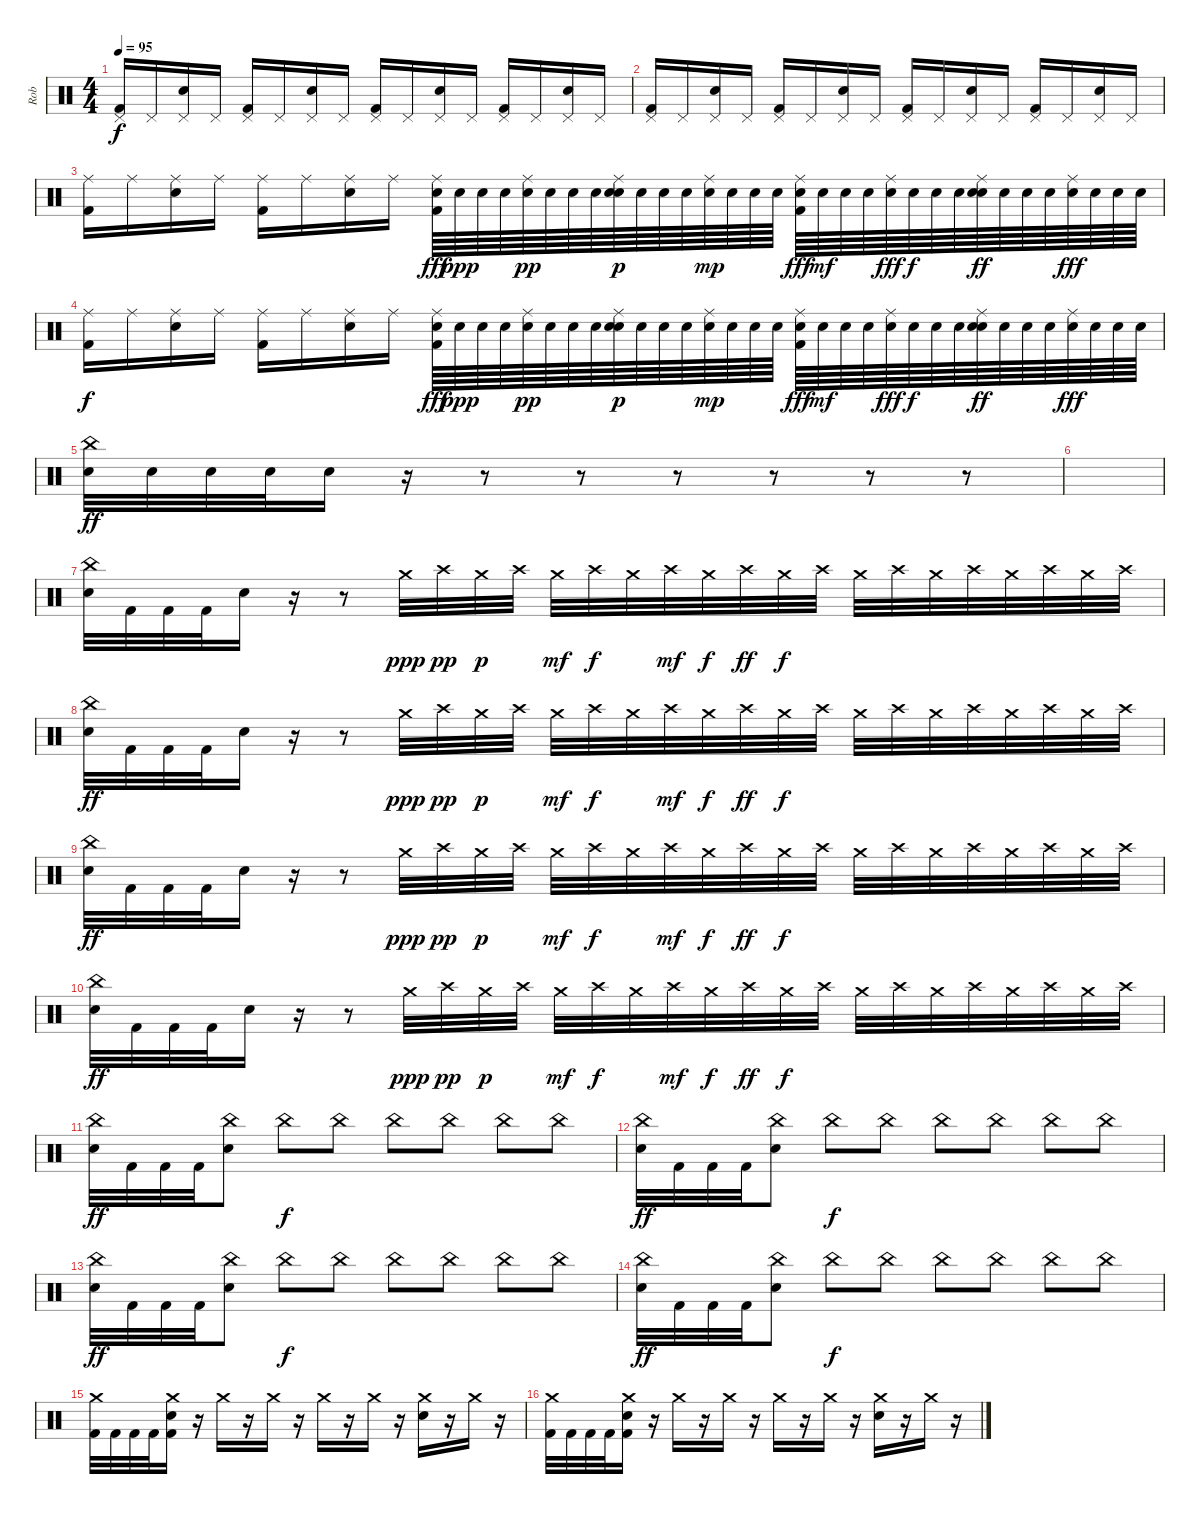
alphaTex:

\track ("Rob" "Rob") {instrument percussion}
\staff {score}
\articulation defaults
\ts (4 4)
\tempo 95
\clef neutral
\ks c
("Pedal Hi-Hat (hit)" "Kick (hit) 2").16{dy f} "Pedal Hi-Hat (hit)".16 ("Pedal Hi-Hat (hit)" "Electric Snare (hit)").16 "Pedal Hi-Hat (hit)".16 ("Pedal Hi-Hat (hit)" "Kick (hit) 2").16 "Pedal Hi-Hat (hit)".16 ("Pedal Hi-Hat (hit)" "Electric Snare (hit)").16 "Pedal Hi-Hat (hit)".16 ("Pedal Hi-Hat (hit)" "Kick (hit) 2").16 "Pedal Hi-Hat (hit)".16 ("Pedal Hi-Hat (hit)" "Electric Snare (hit)").16 "Pedal Hi-Hat (hit)".16 ("Pedal Hi-Hat (hit)" "Kick (hit) 2").16 "Pedal Hi-Hat (hit)".16 ("Pedal Hi-Hat (hit)" "Electric Snare (hit)").16 "Pedal Hi-Hat (hit)".16 |
("Pedal Hi-Hat (hit)" "Kick (hit) 2").16 "Pedal Hi-Hat (hit)".16 ("Pedal Hi-Hat (hit)" "Electric Snare (hit)").16 "Pedal Hi-Hat (hit)".16 ("Pedal Hi-Hat (hit)" "Kick (hit) 2").16 "Pedal Hi-Hat (hit)".16 ("Pedal Hi-Hat (hit)" "Electric Snare (hit)").16 "Pedal Hi-Hat (hit)".16 ("Pedal Hi-Hat (hit)" "Kick (hit) 2").16 "Pedal Hi-Hat (hit)".16 ("Pedal Hi-Hat (hit)" "Electric Snare (hit)").16 "Pedal Hi-Hat (hit)".16 ("Pedal Hi-Hat (hit)" "Kick (hit) 2").16 "Pedal Hi-Hat (hit)".16 ("Pedal Hi-Hat (hit)" "Electric Snare (hit)").16 "Pedal Hi-Hat (hit)".16 |
("Ride (middle)" "Kick (hit) 2").16 "Ride (middle)".16 ("Ride (middle)" "Electric Snare (hit)").16 "Ride (middle)".16 ("Ride (middle)" "Kick (hit) 2").16 "Ride (middle)".16 ("Ride (middle)" "Electric Snare (hit)").16 "Ride (middle)".16 ("Ride (middle)" "Electric Snare (hit)" "Kick (hit) 2").64{dy fff} "Electric Snare (hit)".64{dy ppp} "Electric Snare (hit)".64 "Electric Snare (hit)".64 ("Ride (middle)" "Electric Snare (hit)").64{dy pp} "Electric Snare (hit)".64 "Electric Snare (hit)".64 "Electric Snare (hit)".64 ("Ride (middle)" "Electric Snare (hit)" "Electric Snare (hit)").64{dy p} "Electric Snare (hit)".64 "Electric Snare (hit)".64 "Electric Snare (hit)".64 ("Ride (middle)" "Electric Snare (hit)").64{dy mp} "Electric Snare (hit)".64 "Electric Snare (hit)".64 "Electric Snare (hit)".64 ("Ride (middle)" "Electric Snare (hit)" "Kick (hit) 2").64{dy fff} "Electric Snare (hit)".64{dy mf} "Electric Snare (hit)".64 "Electric Snare (hit)".64 ("Ride (middle)" "Electric Snare (hit)").64{dy fff} "Electric Snare (hit)".64{dy f} "Electric Snare (hit)".64 "Electric Snare (hit)".64 ("Ride (middle)" "Electric Snare (hit)" "Electric Snare (hit)").64{dy ff} "Electric Snare (hit)".64 "Electric Snare (hit)".64 "Electric Snare (hit)".64 ("Ride (middle)" "Electric Snare (hit)").64{dy fff} "Electric Snare (hit)".64 "Electric Snare (hit)".64 "Electric Snare (hit)".64 |
("Ride (middle)" "Kick (hit) 2").16{dy f} "Ride (middle)".16 ("Ride (middle)" "Electric Snare (hit)").16 "Ride (middle)".16 ("Ride (middle)" "Kick (hit) 2").16 "Ride (middle)".16 ("Ride (middle)" "Electric Snare (hit)").16 "Ride (middle)".16 ("Ride (middle)" "Electric Snare (hit)" "Kick (hit) 2").64{dy fff} "Electric Snare (hit)".64{dy ppp} "Electric Snare (hit)".64 "Electric Snare (hit)".64 ("Ride (middle)" "Electric Snare (hit)").64{dy pp} "Electric Snare (hit)".64 "Electric Snare (hit)".64 "Electric Snare (hit)".64 ("Ride (middle)" "Electric Snare (hit)" "Electric Snare (hit)").64{dy p} "Electric Snare (hit)".64 "Electric Snare (hit)".64 "Electric Snare (hit)".64 ("Ride (middle)" "Electric Snare (hit)").64{dy mp} "Electric Snare (hit)".64 "Electric Snare (hit)".64 "Electric Snare (hit)".64 ("Ride (middle)" "Electric Snare (hit)" "Kick (hit) 2").64{dy fff} "Electric Snare (hit)".64{dy mf} "Electric Snare (hit)".64 "Electric Snare (hit)".64 ("Ride (middle)" "Electric Snare (hit)").64{dy fff} "Electric Snare (hit)".64{dy f} "Electric Snare (hit)".64 "Electric Snare (hit)".64 ("Ride (middle)" "Electric Snare (hit)" "Electric Snare (hit)").64{dy ff} "Electric Snare (hit)".64 "Electric Snare (hit)".64 "Electric Snare (hit)".64 ("Ride (middle)" "Electric Snare (hit)").64{dy fff} "Electric Snare (hit)".64 "Electric Snare (hit)".64 "Electric Snare (hit)".64 |
("China (hit)" "Electric Snare (hit)").32{dy ff} "Electric Snare (hit)".32 "Electric Snare (hit)".32 "Electric Snare (hit)".32 "Electric Snare (hit)".16 r.16 r.8 r.8 r.8 r.8 r.8 r.8 |
|
("China (hit)" "Electric Snare (hit)").32 "Kick (hit) 2".32 "Kick (hit) 2".32 "Kick (hit) 2".32 "Electric Snare (hit)".16 r.16 r.8 "Crash medium (hit)".32{dy ppp} "Crash high (hit)".32{dy pp} "Crash medium (hit)".32{dy p} "Crash high (hit)".32 "Crash medium (hit)".32{dy mf} "Crash high (hit)".32{dy f} "Crash medium (hit)".32 "Crash high (hit)".32{dy mf} "Crash medium (hit)".32{dy f} "Crash high (hit)".32{dy ff} "Crash medium (hit)".32{dy f} "Crash high (hit)".32 "Crash medium (hit)".32 "Crash high (hit)".32 "Crash medium (hit)".32 "Crash high (hit)".32 "Crash medium (hit)".32 "Crash high (hit)".32 "Crash medium (hit)".32 "Crash high (hit)".32 |
("China (hit)" "Electric Snare (hit)").32{dy ff} "Kick (hit) 2".32 "Kick (hit) 2".32 "Kick (hit) 2".32 "Electric Snare (hit)".16 r.16 r.8 "Crash medium (hit)".32{dy ppp} "Crash high (hit)".32{dy pp} "Crash medium (hit)".32{dy p} "Crash high (hit)".32 "Crash medium (hit)".32{dy mf} "Crash high (hit)".32{dy f} "Crash medium (hit)".32 "Crash high (hit)".32{dy mf} "Crash medium (hit)".32{dy f} "Crash high (hit)".32{dy ff} "Crash medium (hit)".32{dy f} "Crash high (hit)".32 "Crash medium (hit)".32 "Crash high (hit)".32 "Crash medium (hit)".32 "Crash high (hit)".32 "Crash medium (hit)".32 "Crash high (hit)".32 "Crash medium (hit)".32 "Crash high (hit)".32 |
("China (hit)" "Electric Snare (hit)").32{dy ff} "Kick (hit) 2".32 "Kick (hit) 2".32 "Kick (hit) 2".32 "Electric Snare (hit)".16 r.16 r.8 "Crash medium (hit)".32{dy ppp} "Crash high (hit)".32{dy pp} "Crash medium (hit)".32{dy p} "Crash high (hit)".32 "Crash medium (hit)".32{dy mf} "Crash high (hit)".32{dy f} "Crash medium (hit)".32 "Crash high (hit)".32{dy mf} "Crash medium (hit)".32{dy f} "Crash high (hit)".32{dy ff} "Crash medium (hit)".32{dy f} "Crash high (hit)".32 "Crash medium (hit)".32 "Crash high (hit)".32 "Crash medium (hit)".32 "Crash high (hit)".32 "Crash medium (hit)".32 "Crash high (hit)".32 "Crash medium (hit)".32 "Crash high (hit)".32 |
("China (hit)" "Electric Snare (hit)").32{dy ff} "Kick (hit) 2".32 "Kick (hit) 2".32 "Kick (hit) 2".32 "Electric Snare (hit)".16 r.16 r.8 "Crash medium (hit)".32{dy ppp} "Crash high (hit)".32{dy pp} "Crash medium (hit)".32{dy p} "Crash high (hit)".32 "Crash medium (hit)".32{dy mf} "Crash high (hit)".32{dy f} "Crash medium (hit)".32 "Crash high (hit)".32{dy mf} "Crash medium (hit)".32{dy f} "Crash high (hit)".32{dy ff} "Crash medium (hit)".32{dy f} "Crash high (hit)".32 "Crash medium (hit)".32 "Crash high (hit)".32 "Crash medium (hit)".32 "Crash high (hit)".32 "Crash medium (hit)".32 "Crash high (hit)".32 "Crash medium (hit)".32 "Crash high (hit)".32 |
("China (hit)" "Electric Snare (hit)").32{dy ff} "Kick (hit) 2".32 "Kick (hit) 2".32 "Kick (hit) 2".32 ("China (hit)" "Electric Snare (hit)").8 "China (hit)".8{dy f} "China (hit)".8 "China (hit)".8 "China (hit)".8 "China (hit)".8 "China (hit)".8 |
("China (hit)" "Electric Snare (hit)").32{dy ff} "Kick (hit) 2".32 "Kick (hit) 2".32 "Kick (hit) 2".32 ("China (hit)" "Electric Snare (hit)").8 "China (hit)".8{dy f} "China (hit)".8 "China (hit)".8 "China (hit)".8 "China (hit)".8 "China (hit)".8 |
("China (hit)" "Electric Snare (hit)").32{dy ff} "Kick (hit) 2".32 "Kick (hit) 2".32 "Kick (hit) 2".32 ("China (hit)" "Electric Snare (hit)").8 "China (hit)".8{dy f} "China (hit)".8 "China (hit)".8 "China (hit)".8 "China (hit)".8 "China (hit)".8 |
("China (hit)" "Electric Snare (hit)").32{dy ff} "Kick (hit) 2".32 "Kick (hit) 2".32 "Kick (hit) 2".32 ("China (hit)" "Electric Snare (hit)").8 "China (hit)".8{dy f} "China (hit)".8 "China (hit)".8 "China (hit)".8 "China (hit)".8 "China (hit)".8 |
("Crash medium (hit)" "Kick (hit) 2").32 "Kick (hit) 2".32 "Kick (hit) 2".32 "Kick (hit) 2".32 ("Crash medium (hit)" "Electric Snare (hit)" "Kick (hit) 2").16 r.16 "Crash medium (hit)".16 r.16 "Crash medium (hit)".16 r.16 "Crash medium (hit)".16 r.16 "Crash medium (hit)".16 r.16 ("Crash medium (hit)" "Electric Snare (hit)").16 r.16 "Crash medium (hit)".16 r.16 |
("Crash medium (hit)" "Kick (hit) 2").32 "Kick (hit) 2".32 "Kick (hit) 2".32 "Kick (hit) 2".32 ("Crash medium (hit)" "Electric Snare (hit)" "Kick (hit) 2").16 r.16 "Crash medium (hit)".16 r.16 "Crash medium (hit)".16 r.16 "Crash medium (hit)".16 r.16 "Crash medium (hit)".16 r.16 ("Crash medium (hit)" "Electric Snare (hit)").16 r.16 "Crash medium (hit)".16 r.16
